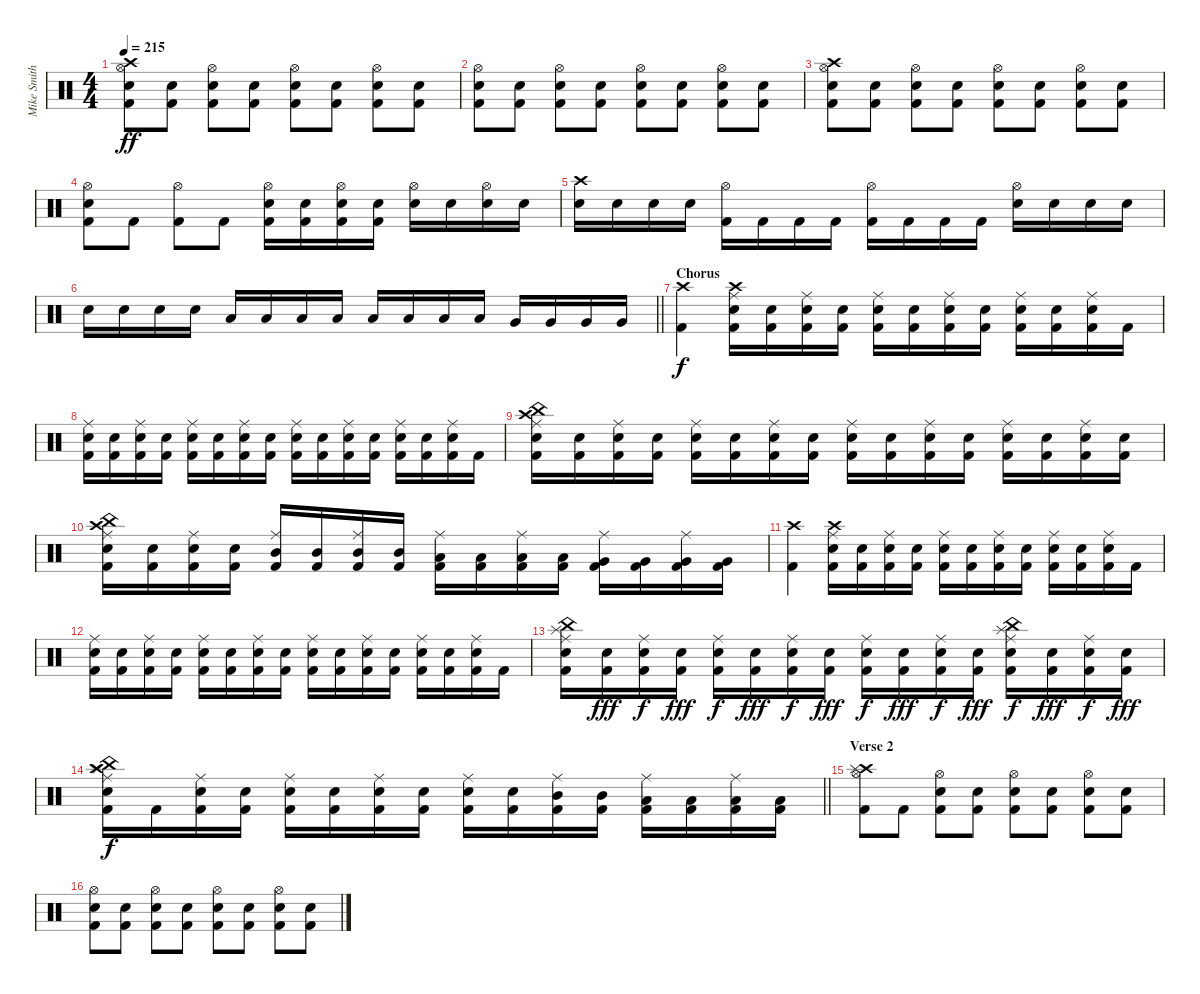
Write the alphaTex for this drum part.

\track ("Mike Smith (Suffocation)" "Mike Smith") {instrument percussion}
\staff {score}
\articulation defaults
\ts (4 4)
\tempo 215
\clef neutral
\ks c
("Crash high (hit)" "Hi-Hat (open)" "Snare (hit) 2" "Kick (hit) 2").8{dy ff} ("Snare (hit) 2" "Kick (hit) 2").8 ("Hi-Hat (open)" "Snare (hit) 2" "Kick (hit) 2").8 ("Snare (hit) 2" "Kick (hit) 2").8 ("Hi-Hat (open)" "Snare (hit) 2" "Kick (hit) 2").8 ("Snare (hit) 2" "Kick (hit) 2").8 ("Hi-Hat (open)" "Snare (hit) 2" "Kick (hit) 2").8 ("Snare (hit) 2" "Kick (hit) 2").8 |
("Hi-Hat (open)" "Snare (hit) 2" "Kick (hit) 2").8 ("Snare (hit) 2" "Kick (hit) 2").8 ("Hi-Hat (open)" "Snare (hit) 2" "Kick (hit) 2").8 ("Snare (hit) 2" "Kick (hit) 2").8 ("Hi-Hat (open)" "Snare (hit) 2" "Kick (hit) 2").8 ("Snare (hit) 2" "Kick (hit) 2").8 ("Hi-Hat (open)" "Snare (hit) 2" "Kick (hit) 2").8 ("Snare (hit) 2" "Kick (hit) 2").8 |
("Crash high (hit)" "Hi-Hat (open)" "Snare (hit) 2" "Kick (hit) 2").8 ("Snare (hit) 2" "Kick (hit) 2").8 ("Hi-Hat (open)" "Snare (hit) 2" "Kick (hit) 2").8 ("Snare (hit) 2" "Kick (hit) 2").8 ("Hi-Hat (open)" "Snare (hit) 2" "Kick (hit) 2").8 ("Snare (hit) 2" "Kick (hit) 2").8 ("Hi-Hat (open)" "Snare (hit) 2" "Kick (hit) 2").8 ("Snare (hit) 2" "Kick (hit) 2").8 |
("Hi-Hat (open)" "Snare (hit) 2" "Kick (hit) 2").8 "Kick (hit) 2".8 ("Hi-Hat (open)" "Kick (hit) 2").8 "Kick (hit) 2".8 ("Hi-Hat (open)" "Snare (hit) 2" "Kick (hit) 2").16 ("Snare (hit) 2" "Kick (hit) 2").16 ("Hi-Hat (open)" "Snare (hit) 2" "Kick (hit) 2").16 ("Snare (hit) 2" "Kick (hit) 2").16 ("Hi-Hat (open)" "Snare (hit) 2").16 "Snare (hit) 2".16 ("Hi-Hat (open)" "Snare (hit) 2").16 "Snare (hit) 2".16 |
("Crash high (hit)" "Snare (hit) 2").16 "Snare (hit) 2".16 "Snare (hit) 2".16 "Snare (hit) 2".16 ("Hi-Hat (open)" "Kick (hit) 2").16 "Kick (hit) 2".16 "Kick (hit) 2".16 "Kick (hit) 2".16 ("Hi-Hat (open)" "Kick (hit) 2").16 "Kick (hit) 2".16 "Kick (hit) 2".16 "Kick (hit) 2".16 ("Hi-Hat (open)" "Snare (hit) 2").16 "Snare (hit) 2".16 "Snare (hit) 2".16 "Snare (hit) 2".16 |
\barLineRight lightlight "Snare (hit) 2".16 "Snare (hit) 2".16 "Snare (hit) 2".16 "Snare (hit) 2".16 "Low Tom (hit)".16 "Low Tom (hit)".16 "Low Tom (hit)".16 "Low Tom (hit)".16 "Low Tom (hit)".16 "Low Tom (hit)".16 "Low Tom (hit)".16 "Low Tom (hit)".16 "Very Low Tom (hit)".16 "Very Low Tom (hit)".16 "Very Low Tom (hit)".16 "Very Low Tom (hit)".16
|
\section ("" "Chorus")
("Crash high (hit)" "Kick (hit) 2").4{dy f} ("Crash high (hit)" "Ride (middle)" "Snare (hit) 2" "Kick (hit) 2").16 ("Snare (hit) 2" "Kick (hit) 2").16 ("Ride (middle)" "Snare (hit) 2" "Kick (hit) 2").16 ("Snare (hit) 2" "Kick (hit) 2").16 ("Ride (middle)" "Snare (hit) 2" "Kick (hit) 2").16 ("Snare (hit) 2" "Kick (hit) 2").16 ("Ride (middle)" "Snare (hit) 2" "Kick (hit) 2").16 ("Snare (hit) 2" "Kick (hit) 2").16 ("Ride (middle)" "Snare (hit) 2" "Kick (hit) 2").16 ("Snare (hit) 2" "Kick (hit) 2").16 ("Ride (middle)" "Snare (hit) 2" "Kick (hit) 2").16 "Kick (hit) 2".16 |
("Ride (middle)" "Snare (hit) 2" "Kick (hit) 2").16 ("Snare (hit) 2" "Kick (hit) 2").16 ("Ride (middle)" "Snare (hit) 2" "Kick (hit) 2").16 ("Snare (hit) 2" "Kick (hit) 2").16 ("Ride (middle)" "Snare (hit) 2" "Kick (hit) 2").16 ("Snare (hit) 2" "Kick (hit) 2").16 ("Ride (middle)" "Snare (hit) 2" "Kick (hit) 2").16 ("Snare (hit) 2" "Kick (hit) 2").16 ("Ride (middle)" "Snare (hit) 2" "Kick (hit) 2").16 ("Snare (hit) 2" "Kick (hit) 2").16 ("Ride (middle)" "Snare (hit) 2" "Kick (hit) 2").16 ("Snare (hit) 2" "Kick (hit) 2").16 ("Ride (middle)" "Snare (hit) 2" "Kick (hit) 2").16 ("Snare (hit) 2" "Kick (hit) 2").16 ("Ride (middle)" "Snare (hit) 2" "Kick (hit) 2").16 "Kick (hit) 2".16 |
("Crash high (hit)" "Ride (middle)" "Snare (hit) 2" "China (hit)" "Kick (hit) 2").16 ("Snare (hit) 2" "Kick (hit) 2").16 ("Ride (middle)" "Snare (hit) 2" "Kick (hit) 2").16 ("Snare (hit) 2" "Kick (hit) 2").16 ("Ride (middle)" "Snare (hit) 2" "Kick (hit) 2").16 ("Snare (hit) 2" "Kick (hit) 2").16 ("Ride (middle)" "Snare (hit) 2" "Kick (hit) 2").16 ("Snare (hit) 2" "Kick (hit) 2").16 ("Ride (middle)" "Snare (hit) 2" "Kick (hit) 2").16 ("Snare (hit) 2" "Kick (hit) 2").16 ("Ride (middle)" "Snare (hit) 2" "Kick (hit) 2").16 ("Snare (hit) 2" "Kick (hit) 2").16 ("Ride (middle)" "Snare (hit) 2" "Kick (hit) 2").16 ("Snare (hit) 2" "Kick (hit) 2").16 ("Ride (middle)" "Snare (hit) 2" "Kick (hit) 2").16 ("Snare (hit) 2" "Kick (hit) 2").16 |
("Crash high (hit)" "Ride (middle)" "Snare (hit) 2" "China (hit)" "Kick (hit) 2").16 ("Snare (hit) 2" "Kick (hit) 2").16 ("Ride (middle)" "Snare (hit) 2" "Kick (hit) 2").16 ("Snare (hit) 2" "Kick (hit) 2").16 ("Ride (middle)" "Mid Tom (hit)" "Kick (hit) 2").16 ("Mid Tom (hit)" "Kick (hit) 2").16 ("Ride (middle)" "Mid Tom (hit)" "Kick (hit) 2").16 ("Mid Tom (hit)" "Kick (hit) 2").16 ("Ride (middle)" "Low Tom (hit)" "Kick (hit) 2").16 ("Low Tom (hit)" "Kick (hit) 2").16 ("Ride (middle)" "Low Tom (hit)" "Kick (hit) 2").16 ("Low Tom (hit)" "Kick (hit) 2").16 ("Ride (middle)" "Very Low Tom (hit)" "Kick (hit) 2").16 ("Very Low Tom (hit)" "Kick (hit) 2").16 ("Ride (middle)" "Very Low Tom (hit)" "Kick (hit) 2").16 ("Very Low Tom (hit)" "Kick (hit) 2").16 |
("Crash high (hit)" "Kick (hit) 2").4 ("Crash high (hit)" "Ride (middle)" "Snare (hit) 2" "Kick (hit) 2").16 ("Snare (hit) 2" "Kick (hit) 2").16 ("Ride (middle)" "Snare (hit) 2" "Kick (hit) 2").16 ("Snare (hit) 2" "Kick (hit) 2").16 ("Ride (middle)" "Snare (hit) 2" "Kick (hit) 2").16 ("Snare (hit) 2" "Kick (hit) 2").16 ("Ride (middle)" "Snare (hit) 2" "Kick (hit) 2").16 ("Snare (hit) 2" "Kick (hit) 2").16 ("Ride (middle)" "Snare (hit) 2" "Kick (hit) 2").16 ("Snare (hit) 2" "Kick (hit) 2").16 ("Ride (middle)" "Snare (hit) 2" "Kick (hit) 2").16 "Kick (hit) 2".16 |
("Ride (middle)" "Snare (hit) 2" "Kick (hit) 2").16 ("Snare (hit) 2" "Kick (hit) 2").16 ("Ride (middle)" "Snare (hit) 2" "Kick (hit) 2").16 ("Snare (hit) 2" "Kick (hit) 2").16 ("Ride (middle)" "Snare (hit) 2" "Kick (hit) 2").16 ("Snare (hit) 2" "Kick (hit) 2").16 ("Ride (middle)" "Snare (hit) 2" "Kick (hit) 2").16 ("Snare (hit) 2" "Kick (hit) 2").16 ("Ride (middle)" "Snare (hit) 2" "Kick (hit) 2").16 ("Snare (hit) 2" "Kick (hit) 2").16 ("Ride (middle)" "Snare (hit) 2" "Kick (hit) 2").16 ("Snare (hit) 2" "Kick (hit) 2").16 ("Ride (middle)" "Snare (hit) 2" "Kick (hit) 2").16 ("Snare (hit) 2" "Kick (hit) 2").16 ("Ride (middle)" "Snare (hit) 2" "Kick (hit) 2").16 "Kick (hit) 2".16 |
("Ride (middle)" "China (hit)" "Snare (hit) 2" "Splash (hit)" "Kick (hit) 2").16 ("Snare (hit) 2" "Kick (hit) 2").16{dy fff} ("Ride (middle)" "Snare (hit) 2" "Kick (hit) 2").16{dy f} ("Snare (hit) 2" "Kick (hit) 2").16{dy fff} ("Ride (middle)" "Snare (hit) 2" "Kick (hit) 2").16{dy f} ("Snare (hit) 2" "Kick (hit) 2").16{dy fff} ("Ride (middle)" "Snare (hit) 2" "Kick (hit) 2").16{dy f} ("Snare (hit) 2" "Kick (hit) 2").16{dy fff} ("Ride (middle)" "Snare (hit) 2" "Kick (hit) 2").16{dy f} ("Snare (hit) 2" "Kick (hit) 2").16{dy fff} ("Ride (middle)" "Snare (hit) 2" "Kick (hit) 2").16{dy f} ("Snare (hit) 2" "Kick (hit) 2").16{dy fff} ("Ride (middle)" "China (hit)" "Snare (hit) 2" "Splash (hit)" "Kick (hit) 2").16{dy f} ("Snare (hit) 2" "Kick (hit) 2").16{dy fff} ("Ride (middle)" "Snare (hit) 2" "Kick (hit) 2").16{dy f} ("Snare (hit) 2" "Kick (hit) 2").16{dy fff} |
\barLineRight lightlight
("Ride (middle)" "China (hit)" "Snare (hit) 2" "Splash (hit)" "Crash high (hit)" "Kick (hit) 2").16{dy f} "Kick (hit) 2".16 ("Ride (middle)" "Snare (hit) 2" "Kick (hit) 2").16 ("Snare (hit) 2" "Kick (hit) 2").16 ("Ride (middle)" "Snare (hit) 2" "Kick (hit) 2").16 ("Snare (hit) 2" "Kick (hit) 2").16 ("Ride (middle)" "Snare (hit) 2" "Kick (hit) 2").16 ("Snare (hit) 2" "Kick (hit) 2").16 ("Ride (middle)" "Snare (hit) 2" "Kick (hit) 2").16 ("Snare (hit) 2" "Kick (hit) 2").16 ("Ride (middle)" "Mid Tom (hit)" "Kick (hit) 2").16 ("Mid Tom (hit)" "Kick (hit) 2").16 ("Ride (middle)" "Low Tom (hit)" "Kick (hit) 2").16 ("Low Tom (hit)" "Kick (hit) 2").16 ("Ride (middle)" "Low Tom (hit)" "Kick (hit) 2").16 ("Low Tom (hit)" "Kick (hit) 2").16 |
\section ("" "Verse 2")
("Crash high (hit)" "Hi-Hat (open)" "Splash (hit)" "Kick (hit) 2").8{volume 15} "Kick (hit) 2".8 ("Hi-Hat (open)" "Snare (hit) 2" "Kick (hit) 2").8 ("Snare (hit) 2" "Kick (hit) 2").8 ("Hi-Hat (open)" "Snare (hit) 2" "Kick (hit) 2").8 ("Snare (hit) 2" "Kick (hit) 2").8 ("Hi-Hat (open)" "Snare (hit) 2" "Kick (hit) 2").8 ("Snare (hit) 2" "Kick (hit) 2").8 |
("Hi-Hat (open)" "Snare (hit) 2" "Kick (hit) 2").8 ("Snare (hit) 2" "Kick (hit) 2").8 ("Hi-Hat (open)" "Snare (hit) 2" "Kick (hit) 2").8 ("Snare (hit) 2" "Kick (hit) 2").8 ("Hi-Hat (open)" "Snare (hit) 2" "Kick (hit) 2").8 ("Snare (hit) 2" "Kick (hit) 2").8 ("Hi-Hat (open)" "Snare (hit) 2" "Kick (hit) 2").8 ("Snare (hit) 2" "Kick (hit) 2").8
